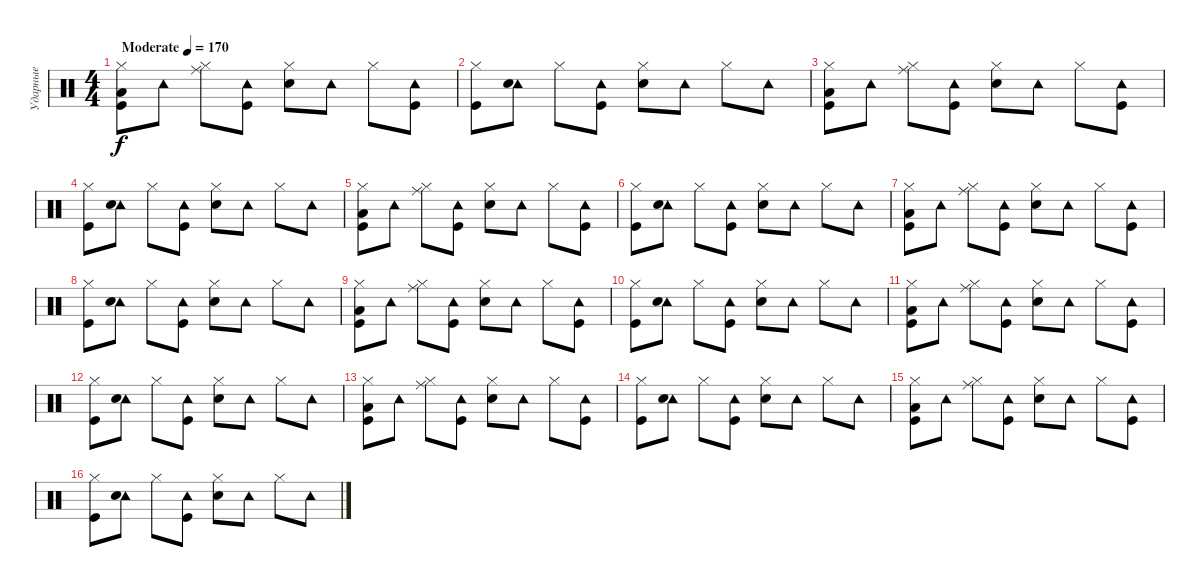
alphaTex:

\track ("Ударные" "Ударные") {instrument percussion}
\staff {score}
\articulation defaults
\ts (4 4)
\tempo (170 "Moderate")
\clef neutral
\ks c
("Hi-Hat (closed)" "Kick (hit)" "Low Floor Tom (hit)").8{dy f volume 8 balance 16} "Tambourine (hit)".8 ("Hi-Hat (closed)" "Ride (middle)").8 ("Tambourine (hit)" "Kick (hit)").8 ("Hi-Hat (closed)" "Electric Snare (hit)").8 "Tambourine (hit)".8 "Hi-Hat (closed)".8 ("Tambourine (hit)" "Kick (hit)").8 |
("Hi-Hat (closed)" "Kick (hit)").8{volume 8 balance 8} ("Tambourine (hit)" "Electric Snare (hit)").8 "Hi-Hat (closed)".8 ("Tambourine (hit)" "Kick (hit)").8 ("Hi-Hat (closed)" "Electric Snare (hit)").8 "Tambourine (hit)".8 "Hi-Hat (closed)".8 "Tambourine (hit)".8 |
("Hi-Hat (closed)" "Kick (hit)" "Low Floor Tom (hit)").8{volume 8 balance 0} "Tambourine (hit)".8 ("Hi-Hat (closed)" "Ride (middle)").8 ("Tambourine (hit)" "Kick (hit)").8 ("Hi-Hat (closed)" "Electric Snare (hit)").8 "Tambourine (hit)".8 "Hi-Hat (closed)".8 ("Tambourine (hit)" "Kick (hit)").8 |
("Hi-Hat (closed)" "Kick (hit)").8{volume 8 balance 8} ("Tambourine (hit)" "Electric Snare (hit)").8 "Hi-Hat (closed)".8 ("Tambourine (hit)" "Kick (hit)").8 ("Hi-Hat (closed)" "Electric Snare (hit)").8 "Tambourine (hit)".8 "Hi-Hat (closed)".8 "Tambourine (hit)".8 |
("Hi-Hat (closed)" "Kick (hit)" "Low Floor Tom (hit)").8{volume 8 balance 16} "Tambourine (hit)".8 ("Hi-Hat (closed)" "Ride (middle)").8 ("Tambourine (hit)" "Kick (hit)").8 ("Hi-Hat (closed)" "Electric Snare (hit)").8 "Tambourine (hit)".8 "Hi-Hat (closed)".8 ("Tambourine (hit)" "Kick (hit)").8 |
("Hi-Hat (closed)" "Kick (hit)").8{volume 8 balance 8} ("Tambourine (hit)" "Electric Snare (hit)").8 "Hi-Hat (closed)".8 ("Tambourine (hit)" "Kick (hit)").8 ("Hi-Hat (closed)" "Electric Snare (hit)").8 "Tambourine (hit)".8 "Hi-Hat (closed)".8 "Tambourine (hit)".8 |
("Hi-Hat (closed)" "Kick (hit)" "Low Floor Tom (hit)").8{volume 8 balance 0} "Tambourine (hit)".8 ("Hi-Hat (closed)" "Ride (middle)").8 ("Tambourine (hit)" "Kick (hit)").8 ("Hi-Hat (closed)" "Electric Snare (hit)").8 "Tambourine (hit)".8 "Hi-Hat (closed)".8 ("Tambourine (hit)" "Kick (hit)").8 |
("Hi-Hat (closed)" "Kick (hit)").8{volume 8 balance 8} ("Tambourine (hit)" "Electric Snare (hit)").8 "Hi-Hat (closed)".8 ("Tambourine (hit)" "Kick (hit)").8 ("Hi-Hat (closed)" "Electric Snare (hit)").8 "Tambourine (hit)".8 "Hi-Hat (closed)".8 "Tambourine (hit)".8 |
("Hi-Hat (closed)" "Kick (hit)" "Low Floor Tom (hit)").8{volume 8 balance 16} "Tambourine (hit)".8 ("Hi-Hat (closed)" "Ride (middle)").8 ("Tambourine (hit)" "Kick (hit)").8 ("Hi-Hat (closed)" "Electric Snare (hit)").8 "Tambourine (hit)".8 "Hi-Hat (closed)".8 ("Tambourine (hit)" "Kick (hit)").8 |
("Hi-Hat (closed)" "Kick (hit)").8{volume 8 balance 8} ("Tambourine (hit)" "Electric Snare (hit)").8 "Hi-Hat (closed)".8 ("Tambourine (hit)" "Kick (hit)").8 ("Hi-Hat (closed)" "Electric Snare (hit)").8 "Tambourine (hit)".8 "Hi-Hat (closed)".8 "Tambourine (hit)".8 |
("Hi-Hat (closed)" "Kick (hit)" "Low Floor Tom (hit)").8{volume 8 balance 0} "Tambourine (hit)".8 ("Hi-Hat (closed)" "Ride (middle)").8 ("Tambourine (hit)" "Kick (hit)").8 ("Hi-Hat (closed)" "Electric Snare (hit)").8 "Tambourine (hit)".8 "Hi-Hat (closed)".8 ("Tambourine (hit)" "Kick (hit)").8 |
("Hi-Hat (closed)" "Kick (hit)").8{volume 8 balance 8} ("Tambourine (hit)" "Electric Snare (hit)").8 "Hi-Hat (closed)".8 ("Tambourine (hit)" "Kick (hit)").8 ("Hi-Hat (closed)" "Electric Snare (hit)").8 "Tambourine (hit)".8 "Hi-Hat (closed)".8 "Tambourine (hit)".8 |
("Hi-Hat (closed)" "Kick (hit)" "Low Floor Tom (hit)").8{volume 8 balance 16} "Tambourine (hit)".8 ("Hi-Hat (closed)" "Ride (middle)").8 ("Tambourine (hit)" "Kick (hit)").8 ("Hi-Hat (closed)" "Electric Snare (hit)").8 "Tambourine (hit)".8 "Hi-Hat (closed)".8 ("Tambourine (hit)" "Kick (hit)").8 |
("Hi-Hat (closed)" "Kick (hit)").8{volume 8 balance 8} ("Tambourine (hit)" "Electric Snare (hit)").8 "Hi-Hat (closed)".8 ("Tambourine (hit)" "Kick (hit)").8 ("Hi-Hat (closed)" "Electric Snare (hit)").8 "Tambourine (hit)".8 "Hi-Hat (closed)".8 "Tambourine (hit)".8 |
("Hi-Hat (closed)" "Kick (hit)" "Low Floor Tom (hit)").8{volume 8 balance 0} "Tambourine (hit)".8 ("Hi-Hat (closed)" "Ride (middle)").8 ("Tambourine (hit)" "Kick (hit)").8 ("Hi-Hat (closed)" "Electric Snare (hit)").8 "Tambourine (hit)".8 "Hi-Hat (closed)".8 ("Tambourine (hit)" "Kick (hit)").8 |
("Hi-Hat (closed)" "Kick (hit)").8{volume 8 balance 8} ("Tambourine (hit)" "Electric Snare (hit)").8 "Hi-Hat (closed)".8 ("Tambourine (hit)" "Kick (hit)").8 ("Hi-Hat (closed)" "Electric Snare (hit)").8 "Tambourine (hit)".8 "Hi-Hat (closed)".8 "Tambourine (hit)".8
